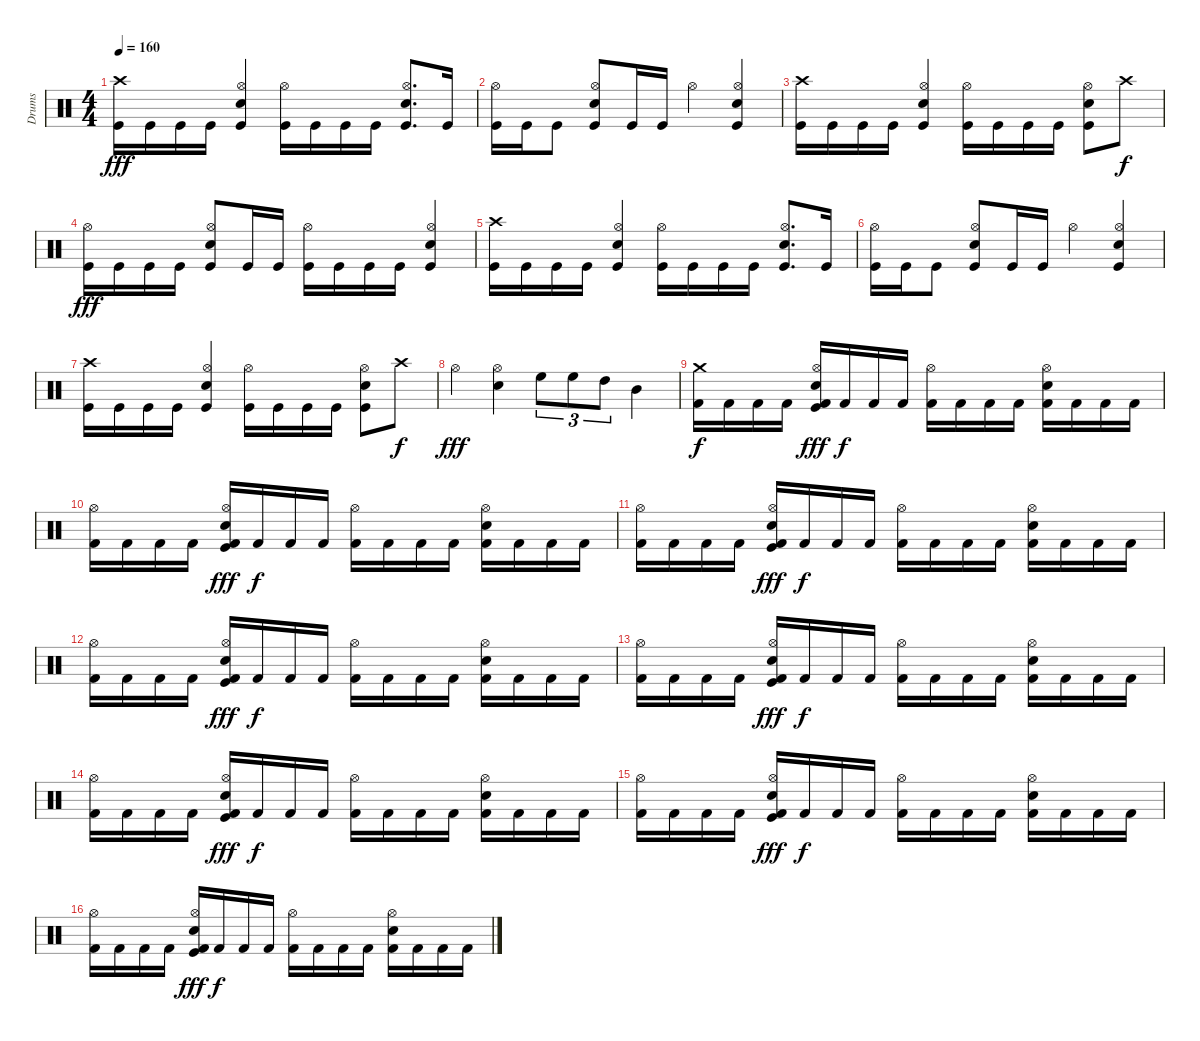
\track ("Drums" "Drums") {instrument percussion}
\staff {score}
\articulation defaults
\ts (4 4)
\tempo 160
\clef neutral
\ks c
("Crash high (hit)" "Kick (hit)").16{dy fff} "Kick (hit)".16 "Kick (hit)".16 "Kick (hit)".16 ("Hi-Hat (open)" "Snare (hit) 2" "Kick (hit)").4 ("Hi-Hat (open)" "Kick (hit)").16 "Kick (hit)".16 "Kick (hit)".16 "Kick (hit)".16 ("Hi-Hat (open)" "Snare (hit) 2" "Kick (hit)").8{d} "Kick (hit)".16 |
("Hi-Hat (open)" "Kick (hit)").16 "Kick (hit)".16 "Kick (hit)".8 ("Hi-Hat (open)" "Snare (hit) 2" "Kick (hit)").8 "Kick (hit)".16 "Kick (hit)".16 "Hi-Hat (open)".4 ("Hi-Hat (open)" "Snare (hit) 2" "Kick (hit)").4 |
("Crash high (hit)" "Kick (hit)").16 "Kick (hit)".16 "Kick (hit)".16 "Kick (hit)".16 ("Hi-Hat (open)" "Snare (hit) 2" "Kick (hit)").4 ("Hi-Hat (open)" "Kick (hit)").16 "Kick (hit)".16 "Kick (hit)".16 "Kick (hit)".16 ("Hi-Hat (open)" "Snare (hit) 2" "Kick (hit)").8 "Crash high (hit)".8{dy f} |
("Hi-Hat (open)" "Kick (hit)").16{dy fff} "Kick (hit)".16 "Kick (hit)".16 "Kick (hit)".16 ("Hi-Hat (open)" "Snare (hit) 2" "Kick (hit)").8 "Kick (hit)".16 "Kick (hit)".16 ("Hi-Hat (open)" "Kick (hit)").16 "Kick (hit)".16 "Kick (hit)".16 "Kick (hit)".16 ("Hi-Hat (open)" "Snare (hit) 2" "Kick (hit)").4 |
("Crash high (hit)" "Kick (hit)").16 "Kick (hit)".16 "Kick (hit)".16 "Kick (hit)".16 ("Hi-Hat (open)" "Snare (hit) 2" "Kick (hit)").4 ("Hi-Hat (open)" "Kick (hit)").16 "Kick (hit)".16 "Kick (hit)".16 "Kick (hit)".16 ("Hi-Hat (open)" "Snare (hit) 2" "Kick (hit)").8{d} "Kick (hit)".16 |
("Hi-Hat (open)" "Kick (hit)").16 "Kick (hit)".16 "Kick (hit)".8 ("Hi-Hat (open)" "Snare (hit) 2" "Kick (hit)").8 "Kick (hit)".16 "Kick (hit)".16 "Hi-Hat (open)".4 ("Hi-Hat (open)" "Snare (hit) 2" "Kick (hit)").4 |
("Crash high (hit)" "Kick (hit)").16 "Kick (hit)".16 "Kick (hit)".16 "Kick (hit)".16 ("Hi-Hat (open)" "Snare (hit) 2" "Kick (hit)").4 ("Hi-Hat (open)" "Kick (hit)").16 "Kick (hit)".16 "Kick (hit)".16 "Kick (hit)".16 ("Hi-Hat (open)" "Snare (hit) 2" "Kick (hit)").8 "Crash high (hit)".8{dy f} |
"Hi-Hat (open)".4{dy fff} ("Hi-Hat (open)" "Snare (hit) 2").4 "High Floor Tom (hit)".8{tu (3 2)} "High Floor Tom (hit)".8{tu (3 2)} "High Tom (hit)".8{tu (3 2)} "Mid Tom (hit)".4 |
("Kick (hit) 2" "Crash medium (hit)").16{dy f} "Kick (hit) 2".16 "Kick (hit) 2".16 "Kick (hit) 2".16 ("Kick (hit) 2" "Snare (hit) 2" "Kick (hit)" "Hi-Hat (open)").16{dy fff} "Kick (hit) 2".16{dy f} "Kick (hit) 2".16 "Kick (hit) 2".16 ("Kick (hit) 2" "Hi-Hat (open)").16 "Kick (hit) 2".16 "Kick (hit) 2".16 "Kick (hit) 2".16 ("Kick (hit) 2" "Snare (hit) 2" "Hi-Hat (open)").16 "Kick (hit) 2".16 "Kick (hit) 2".16 "Kick (hit) 2".16 |
("Kick (hit) 2" "Hi-Hat (open)").16 "Kick (hit) 2".16 "Kick (hit) 2".16 "Kick (hit) 2".16 ("Kick (hit) 2" "Snare (hit) 2" "Kick (hit)" "Hi-Hat (open)").16{dy fff} "Kick (hit) 2".16{dy f} "Kick (hit) 2".16 "Kick (hit) 2".16 ("Kick (hit) 2" "Hi-Hat (open)").16 "Kick (hit) 2".16 "Kick (hit) 2".16 "Kick (hit) 2".16 ("Kick (hit) 2" "Snare (hit) 2" "Hi-Hat (open)").16 "Kick (hit) 2".16 "Kick (hit) 2".16 "Kick (hit) 2".16 |
("Kick (hit) 2" "Hi-Hat (open)").16 "Kick (hit) 2".16 "Kick (hit) 2".16 "Kick (hit) 2".16 ("Kick (hit) 2" "Snare (hit) 2" "Kick (hit)" "Hi-Hat (open)").16{dy fff} "Kick (hit) 2".16{dy f} "Kick (hit) 2".16 "Kick (hit) 2".16 ("Kick (hit) 2" "Hi-Hat (open)").16 "Kick (hit) 2".16 "Kick (hit) 2".16 "Kick (hit) 2".16 ("Kick (hit) 2" "Snare (hit) 2" "Hi-Hat (open)").16 "Kick (hit) 2".16 "Kick (hit) 2".16 "Kick (hit) 2".16 |
("Kick (hit) 2" "Hi-Hat (open)").16 "Kick (hit) 2".16 "Kick (hit) 2".16 "Kick (hit) 2".16 ("Kick (hit) 2" "Snare (hit) 2" "Kick (hit)" "Hi-Hat (open)").16{dy fff} "Kick (hit) 2".16{dy f} "Kick (hit) 2".16 "Kick (hit) 2".16 ("Kick (hit) 2" "Hi-Hat (open)").16 "Kick (hit) 2".16 "Kick (hit) 2".16 "Kick (hit) 2".16 ("Kick (hit) 2" "Snare (hit) 2" "Hi-Hat (open)").16 "Kick (hit) 2".16 "Kick (hit) 2".16 "Kick (hit) 2".16 |
("Kick (hit) 2" "Hi-Hat (open)").16 "Kick (hit) 2".16 "Kick (hit) 2".16 "Kick (hit) 2".16 ("Kick (hit) 2" "Snare (hit) 2" "Kick (hit)" "Hi-Hat (open)").16{dy fff} "Kick (hit) 2".16{dy f} "Kick (hit) 2".16 "Kick (hit) 2".16 ("Kick (hit) 2" "Hi-Hat (open)").16 "Kick (hit) 2".16 "Kick (hit) 2".16 "Kick (hit) 2".16 ("Kick (hit) 2" "Snare (hit) 2" "Hi-Hat (open)").16 "Kick (hit) 2".16 "Kick (hit) 2".16 "Kick (hit) 2".16 |
("Kick (hit) 2" "Hi-Hat (open)").16 "Kick (hit) 2".16 "Kick (hit) 2".16 "Kick (hit) 2".16 ("Kick (hit) 2" "Snare (hit) 2" "Kick (hit)" "Hi-Hat (open)").16{dy fff} "Kick (hit) 2".16{dy f} "Kick (hit) 2".16 "Kick (hit) 2".16 ("Kick (hit) 2" "Hi-Hat (open)").16 "Kick (hit) 2".16 "Kick (hit) 2".16 "Kick (hit) 2".16 ("Kick (hit) 2" "Snare (hit) 2" "Hi-Hat (open)").16 "Kick (hit) 2".16 "Kick (hit) 2".16 "Kick (hit) 2".16 |
("Kick (hit) 2" "Hi-Hat (open)").16 "Kick (hit) 2".16 "Kick (hit) 2".16 "Kick (hit) 2".16 ("Kick (hit) 2" "Snare (hit) 2" "Kick (hit)" "Hi-Hat (open)").16{dy fff} "Kick (hit) 2".16{dy f} "Kick (hit) 2".16 "Kick (hit) 2".16 ("Kick (hit) 2" "Hi-Hat (open)").16 "Kick (hit) 2".16 "Kick (hit) 2".16 "Kick (hit) 2".16 ("Kick (hit) 2" "Snare (hit) 2" "Hi-Hat (open)").16 "Kick (hit) 2".16 "Kick (hit) 2".16 "Kick (hit) 2".16 |
("Kick (hit) 2" "Hi-Hat (open)").16 "Kick (hit) 2".16 "Kick (hit) 2".16 "Kick (hit) 2".16 ("Kick (hit) 2" "Snare (hit) 2" "Kick (hit)" "Hi-Hat (open)").16{dy fff} "Kick (hit) 2".16{dy f} "Kick (hit) 2".16 "Kick (hit) 2".16 ("Kick (hit) 2" "Hi-Hat (open)").16 "Kick (hit) 2".16 "Kick (hit) 2".16 "Kick (hit) 2".16 ("Kick (hit) 2" "Snare (hit) 2" "Hi-Hat (open)").16 "Kick (hit) 2".16 "Kick (hit) 2".16 "Kick (hit) 2".16
